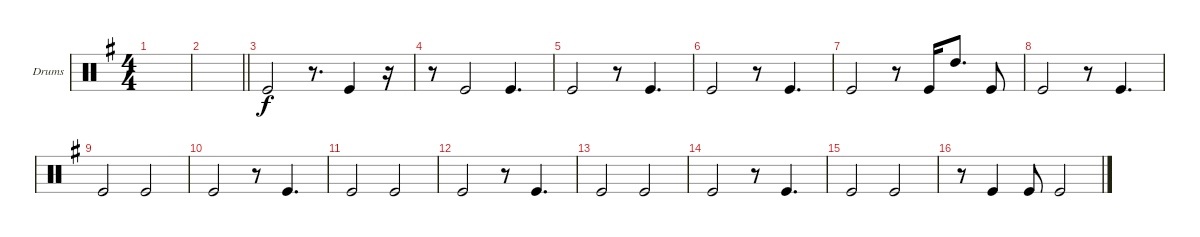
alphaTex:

\defaultSystemsLayout 4
\bracketExtendMode groupsimilarinstruments
\firstSystemTrackNameOrientation horizontal
\otherSystemsTrackNameOrientation horizontal
\track ("Drums" "Drums") {instrument percussion}
\staff {score}
\articulation defaults
\ts (4 4)
\scale
0.61082
\tempo (85 hide)
\accidentals auto
\clef neutral
\ottava regular
\simile none
\ks eminor
|
\scale
0.388621
\barLineRight lightlight
|
\scale
0.54 "Kick (hit)".2 r.8{d} "Kick (hit)".4 r.16 |
\scale
0.460185 r.8 "Kick (hit)".2 "Kick (hit)".4{d} |
\scale
0.628047 "Kick (hit)".2 r.8 "Kick (hit)".4{d} |
\scale
0.371888 "Kick (hit)".2 r.8 "Kick (hit)".4{d} |
\scale
0.524286 "Kick (hit)".2 r.8 "Kick (hit)".16 "High Tom (hit)".8{d} "Kick (hit)".8 |
\scale
0.475783 "Kick (hit)".2 r.8 "Kick (hit)".4{d} |
\scale
0.538571 "Kick (hit)".2 "Kick (hit)".2 |
\scale
0.460976 "Kick (hit)".2 r.8 "Kick (hit)".4{d} |
"Kick (hit)".2 "Kick (hit)".2 |
\scale
0.418146 "Kick (hit)".2 r.8 "Kick (hit)".4{d} |
\scale
0.582741 "Kick (hit)".2 "Kick (hit)".2 |
\scale
0.515937 "Kick (hit)".2 r.8 "Kick (hit)".4{d} |
\scale
0.484377 "Kick (hit)".2 "Kick (hit)".2 |
\scale
0.513662 r.8 "Kick (hit)".4 "Kick (hit)".8 "Kick (hit)".2
